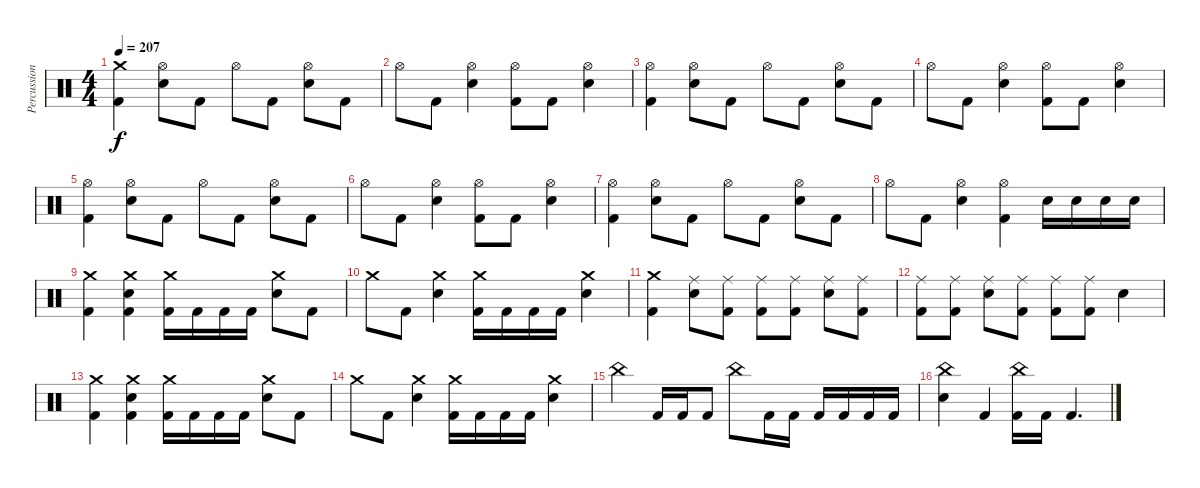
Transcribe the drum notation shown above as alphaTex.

\track ("Percussion" "Percussion") {instrument percussion}
\staff {score}
\articulation defaults
\ts (4 4)
\tempo 207
\clef neutral
\ks c
("Crash medium (hit)" "Kick (hit) 2").4{dy f} ("Hi-Hat (open)" "Electric Snare (hit)").8 "Kick (hit) 2".8 "Hi-Hat (open)".8 "Kick (hit) 2".8 ("Hi-Hat (open)" "Electric Snare (hit)").8 "Kick (hit) 2".8 |
"Hi-Hat (open)".8 "Kick (hit) 2".8 ("Hi-Hat (open)" "Electric Snare (hit)").4 ("Hi-Hat (open)" "Kick (hit) 2").8 "Kick (hit) 2".8 ("Hi-Hat (open)" "Electric Snare (hit)").4 |
("Hi-Hat (open)" "Kick (hit) 2").4 ("Hi-Hat (open)" "Electric Snare (hit)").8 "Kick (hit) 2".8 "Hi-Hat (open)".8 "Kick (hit) 2".8 ("Hi-Hat (open)" "Electric Snare (hit)").8 "Kick (hit) 2".8 |
"Hi-Hat (open)".8 "Kick (hit) 2".8 ("Hi-Hat (open)" "Electric Snare (hit)").4 ("Hi-Hat (open)" "Kick (hit) 2").8 "Kick (hit) 2".8 ("Hi-Hat (open)" "Electric Snare (hit)").4 |
("Hi-Hat (open)" "Kick (hit) 2").4 ("Hi-Hat (open)" "Electric Snare (hit)").8 "Kick (hit) 2".8 "Hi-Hat (open)".8 "Kick (hit) 2".8 ("Hi-Hat (open)" "Electric Snare (hit)").8 "Kick (hit) 2".8 |
"Hi-Hat (open)".8 "Kick (hit) 2".8 ("Hi-Hat (open)" "Electric Snare (hit)").4 ("Hi-Hat (open)" "Kick (hit) 2").8 "Kick (hit) 2".8 ("Hi-Hat (open)" "Electric Snare (hit)").4 |
("Hi-Hat (open)" "Kick (hit) 2").4 ("Hi-Hat (open)" "Electric Snare (hit)").8 "Kick (hit) 2".8 "Hi-Hat (open)".8 "Kick (hit) 2".8 ("Hi-Hat (open)" "Electric Snare (hit)").8 "Kick (hit) 2".8 |
"Hi-Hat (open)".8 "Kick (hit) 2".8 ("Hi-Hat (open)" "Electric Snare (hit)").4 ("Hi-Hat (open)" "Kick (hit) 2").4 "Electric Snare (hit)".16 "Electric Snare (hit)".16 "Electric Snare (hit)".16 "Electric Snare (hit)".16 |
("Crash medium (hit)" "Kick (hit) 2").4 ("Crash medium (hit)" "Electric Snare (hit)" "Kick (hit) 2").4 ("Crash medium (hit)" "Kick (hit) 2").16 "Kick (hit) 2".16 "Kick (hit) 2".16 "Kick (hit) 2".16 ("Crash medium (hit)" "Electric Snare (hit)").8 "Kick (hit) 2".8 |
"Crash medium (hit)".8 "Kick (hit) 2".8 ("Crash medium (hit)" "Electric Snare (hit)").4 ("Crash medium (hit)" "Kick (hit) 2").16 "Kick (hit) 2".16 "Kick (hit) 2".16 "Kick (hit) 2".16 ("Crash medium (hit)" "Electric Snare (hit)").4 |
("Crash medium (hit)" "Kick (hit) 2").4 ("Ride (middle)" "Electric Snare (hit)").8 ("Ride (middle)" "Kick (hit) 2").8 ("Ride (middle)" "Kick (hit) 2").8 ("Ride (middle)" "Kick (hit) 2").8 ("Ride (middle)" "Electric Snare (hit)").8 ("Ride (middle)" "Kick (hit) 2").8 |
("Ride (middle)" "Kick (hit) 2").8 ("Ride (middle)" "Kick (hit) 2").8 ("Ride (middle)" "Electric Snare (hit)").8 ("Ride (middle)" "Kick (hit) 2").8 ("Ride (middle)" "Kick (hit) 2").8 ("Ride (middle)" "Kick (hit) 2").8 "Electric Snare (hit)".4 |
("Crash medium (hit)" "Kick (hit) 2").4 ("Crash medium (hit)" "Electric Snare (hit)" "Kick (hit) 2").4 ("Crash medium (hit)" "Kick (hit) 2").16 "Kick (hit) 2".16 "Kick (hit) 2".16 "Kick (hit) 2".16 ("Crash medium (hit)" "Electric Snare (hit)").8 "Kick (hit) 2".8 |
"Crash medium (hit)".8 "Kick (hit) 2".8 ("Crash medium (hit)" "Electric Snare (hit)").4 ("Crash medium (hit)" "Kick (hit) 2").16 "Kick (hit) 2".16 "Kick (hit) 2".16 "Kick (hit) 2".16 ("Crash medium (hit)" "Electric Snare (hit)").4 |
"China (hit)".4 "Kick (hit) 2".16 "Kick (hit) 2".16 "Kick (hit) 2".8 "China (hit)".8 "Kick (hit) 2".16 "Kick (hit) 2".16 "Kick (hit) 2".16 "Kick (hit) 2".16 "Kick (hit) 2".16 "Kick (hit) 2".16 |
("China (hit)" "Electric Snare (hit)").4 "Kick (hit) 2".4 ("China (hit)" "Kick (hit) 2").16 "Kick (hit) 2".16 "Kick (hit) 2".4{d}
